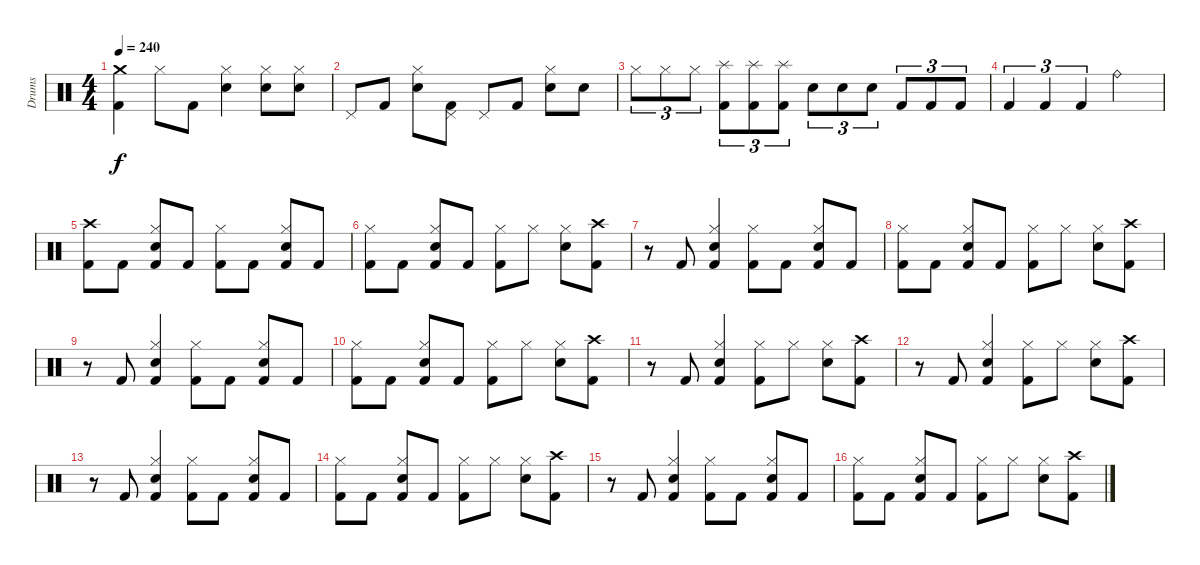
\track ("Drums" "Drums") {instrument percussion}
\staff {score}
\articulation defaults
\ts (4 4)
\tempo 240
\clef neutral
\ks c
("Crash medium (hit)" "Kick (hit) 2").4{dy f} "Hi-Hat (closed)".8 "Kick (hit) 2".8 ("Hi-Hat (closed)" "Snare (hit) 2").4 ("Hi-Hat (closed)" "Snare (hit) 2").8 ("Hi-Hat (closed)" "Snare (hit) 2").8 |
"Pedal Hi-Hat (hit)".8 "Kick (hit) 2".8 ("Hi-Hat (closed)" "Snare (hit) 2").8 ("Pedal Hi-Hat (hit)" "Kick (hit) 2").8 "Pedal Hi-Hat (hit)".8 "Kick (hit) 2".8 ("Hi-Hat (closed)" "Snare (hit) 2").8 "Snare (hit) 2".8 |
"Hi-Hat (closed)".8{tu (3 2)} "Hi-Hat (closed)".8{tu (3 2)} "Hi-Hat (closed)".8{tu (3 2)} ("Splash (hit)" "Kick (hit) 2").8{tu (3 2)} ("Splash (hit)" "Kick (hit) 2").8{tu (3 2)} ("Splash (hit)" "Kick (hit) 2").8{tu (3 2)} "Snare (hit) 2".8{tu (3 2)} "Snare (hit) 2".8{tu (3 2)} "Snare (hit) 2".8{tu (3 2)} "Kick (hit) 2".8{tu (3 2)} "Kick (hit) 2".8{tu (3 2)} "Kick (hit) 2".8{tu (3 2)} |
"Kick (hit) 2".4{tu (3 2)} "Kick (hit) 2".4{tu (3 2)} "Kick (hit) 2".4{tu (3 2)} "Ride (bell)".2 |
("Crash high (hit)" "Kick (hit) 2").8 "Kick (hit) 2".8 ("Hi-Hat (closed)" "Snare (hit) 2" "Kick (hit) 2").8 "Kick (hit) 2".8 ("Hi-Hat (closed)" "Kick (hit) 2").8 "Kick (hit) 2".8 ("Hi-Hat (closed)" "Snare (hit) 2" "Kick (hit) 2").8 "Kick (hit) 2".8 |
("Hi-Hat (closed)" "Kick (hit) 2").8 "Kick (hit) 2".8 ("Hi-Hat (closed)" "Snare (hit) 2" "Kick (hit) 2").8 "Kick (hit) 2".8 ("Hi-Hat (closed)" "Kick (hit) 2").8 "Hi-Hat (closed)".8 ("Hi-Hat (closed)" "Snare (hit) 2").8 ("Crash high (hit)" "Kick (hit) 2").8 |
r.8 "Kick (hit) 2".8 ("Hi-Hat (closed)" "Snare (hit) 2" "Kick (hit) 2").4 ("Hi-Hat (closed)" "Kick (hit) 2").8 "Kick (hit) 2".8 ("Hi-Hat (closed)" "Snare (hit) 2" "Kick (hit) 2").8 "Kick (hit) 2".8 |
("Hi-Hat (closed)" "Kick (hit) 2").8 "Kick (hit) 2".8 ("Hi-Hat (closed)" "Snare (hit) 2" "Kick (hit) 2").8 "Kick (hit) 2".8 ("Hi-Hat (closed)" "Kick (hit) 2").8 "Hi-Hat (closed)".8 ("Hi-Hat (closed)" "Snare (hit) 2").8 ("Crash high (hit)" "Kick (hit) 2").8 |
r.8 "Kick (hit) 2".8 ("Hi-Hat (closed)" "Snare (hit) 2" "Kick (hit) 2").4 ("Hi-Hat (closed)" "Kick (hit) 2").8 "Kick (hit) 2".8 ("Hi-Hat (closed)" "Snare (hit) 2" "Kick (hit) 2").8 "Kick (hit) 2".8 |
("Hi-Hat (closed)" "Kick (hit) 2").8 "Kick (hit) 2".8 ("Hi-Hat (closed)" "Snare (hit) 2" "Kick (hit) 2").8 "Kick (hit) 2".8 ("Hi-Hat (closed)" "Kick (hit) 2").8 "Hi-Hat (closed)".8 ("Hi-Hat (closed)" "Snare (hit) 2").8 ("Crash high (hit)" "Kick (hit) 2").8 |
r.8 "Kick (hit) 2".8 ("Hi-Hat (closed)" "Snare (hit) 2" "Kick (hit) 2").4 ("Hi-Hat (closed)" "Kick (hit) 2").8 "Hi-Hat (closed)".8 ("Hi-Hat (closed)" "Snare (hit) 2").8 ("Crash high (hit)" "Kick (hit) 2").8 |
r.8 "Kick (hit) 2".8 ("Hi-Hat (closed)" "Snare (hit) 2" "Kick (hit) 2").4 ("Hi-Hat (closed)" "Kick (hit) 2").8 "Hi-Hat (closed)".8 ("Hi-Hat (closed)" "Snare (hit) 2").8 ("Crash high (hit)" "Kick (hit) 2").8 |
r.8 "Kick (hit) 2".8 ("Hi-Hat (closed)" "Snare (hit) 2" "Kick (hit) 2").4 ("Hi-Hat (closed)" "Kick (hit) 2").8 "Kick (hit) 2".8 ("Hi-Hat (closed)" "Snare (hit) 2" "Kick (hit) 2").8 "Kick (hit) 2".8 |
("Hi-Hat (closed)" "Kick (hit) 2").8 "Kick (hit) 2".8 ("Hi-Hat (closed)" "Snare (hit) 2" "Kick (hit) 2").8 "Kick (hit) 2".8 ("Hi-Hat (closed)" "Kick (hit) 2").8 "Hi-Hat (closed)".8 ("Hi-Hat (closed)" "Snare (hit) 2").8 ("Crash high (hit)" "Kick (hit) 2").8 |
r.8 "Kick (hit) 2".8 ("Hi-Hat (closed)" "Snare (hit) 2" "Kick (hit) 2").4 ("Hi-Hat (closed)" "Kick (hit) 2").8 "Kick (hit) 2".8 ("Hi-Hat (closed)" "Snare (hit) 2" "Kick (hit) 2").8 "Kick (hit) 2".8 |
("Hi-Hat (closed)" "Kick (hit) 2").8 "Kick (hit) 2".8 ("Hi-Hat (closed)" "Snare (hit) 2" "Kick (hit) 2").8 "Kick (hit) 2".8 ("Hi-Hat (closed)" "Kick (hit) 2").8 "Hi-Hat (closed)".8 ("Hi-Hat (closed)" "Snare (hit) 2").8 ("Crash high (hit)" "Kick (hit) 2").8
